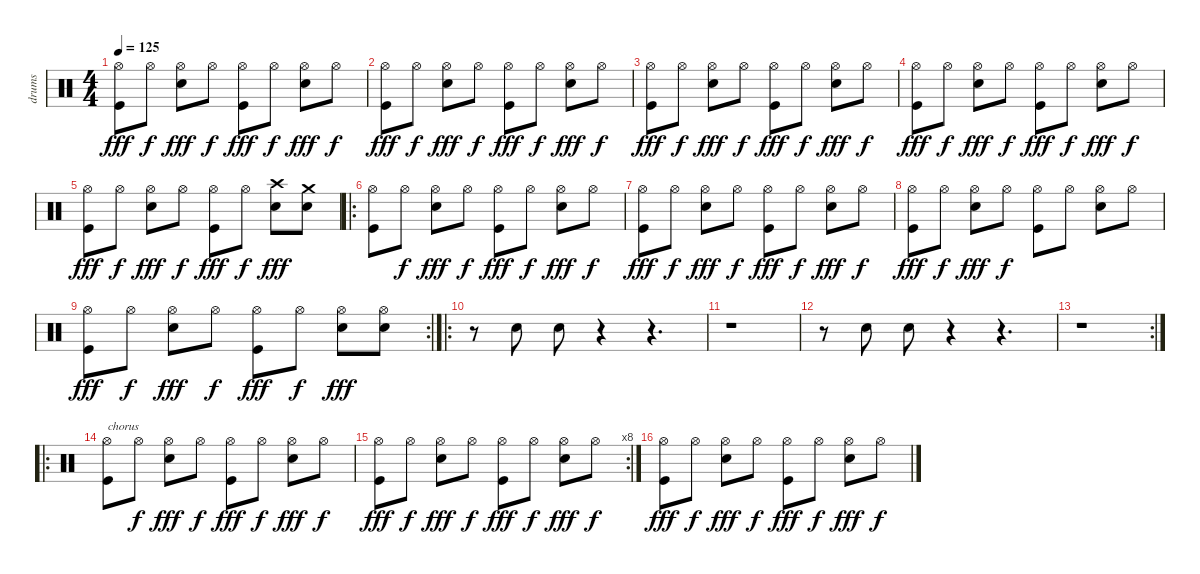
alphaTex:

\track ("drums" "drums") {instrument percussion}
\staff {score}
\articulation defaults
\ts (4 4)
\tempo 125
\clef neutral
\ks c
("Hi-Hat (open)" "Kick (hit)").8{dy fff} "Hi-Hat (open)".8{dy f} ("Hi-Hat (open)" "Snare (hit) 2").8{dy fff} "Hi-Hat (open)".8{dy f} ("Hi-Hat (open)" "Kick (hit)").8{dy fff} "Hi-Hat (open)".8{dy f} ("Hi-Hat (open)" "Snare (hit) 2").8{dy fff} "Hi-Hat (open)".8{dy f} |
("Hi-Hat (open)" "Kick (hit)").8{dy fff} "Hi-Hat (open)".8{dy f} ("Hi-Hat (open)" "Snare (hit) 2").8{dy fff} "Hi-Hat (open)".8{dy f} ("Hi-Hat (open)" "Kick (hit)").8{dy fff} "Hi-Hat (open)".8{dy f} ("Hi-Hat (open)" "Snare (hit) 2").8{dy fff} "Hi-Hat (open)".8{dy f} |
("Hi-Hat (open)" "Kick (hit)").8{dy fff} "Hi-Hat (open)".8{dy f} ("Hi-Hat (open)" "Snare (hit) 2").8{dy fff} "Hi-Hat (open)".8{dy f} ("Hi-Hat (open)" "Kick (hit)").8{dy fff} "Hi-Hat (open)".8{dy f} ("Hi-Hat (open)" "Snare (hit) 2").8{dy fff} "Hi-Hat (open)".8{dy f} |
("Hi-Hat (open)" "Kick (hit)").8{dy fff} "Hi-Hat (open)".8{dy f} ("Hi-Hat (open)" "Snare (hit) 2").8{dy fff} "Hi-Hat (open)".8{dy f} ("Hi-Hat (open)" "Kick (hit)").8{dy fff} "Hi-Hat (open)".8{dy f} ("Hi-Hat (open)" "Snare (hit) 2").8{dy fff} "Hi-Hat (open)".8{dy f} |
("Hi-Hat (open)" "Kick (hit)").8{dy fff} "Hi-Hat (open)".8{dy f} ("Hi-Hat (open)" "Snare (hit) 2").8{dy fff} "Hi-Hat (open)".8{dy f} ("Hi-Hat (open)" "Kick (hit)").8{dy fff} "Hi-Hat (open)".8{dy f} ("Crash high (hit)" "Snare (hit) 2").8{dy fff} ("Crash medium (hit)" "Snare (hit) 2").8 |
\ro
("Hi-Hat (open)" "Kick (hit)").8 "Hi-Hat (open)".8{dy f} ("Hi-Hat (open)" "Snare (hit) 2").8{dy fff} "Hi-Hat (open)".8{dy f} ("Hi-Hat (open)" "Kick (hit)").8{dy fff} "Hi-Hat (open)".8{dy f} ("Hi-Hat (open)" "Snare (hit) 2").8{dy fff} "Hi-Hat (open)".8{dy f} |
("Hi-Hat (open)" "Kick (hit)").8{dy fff} "Hi-Hat (open)".8{dy f} ("Hi-Hat (open)" "Snare (hit) 2").8{dy fff} "Hi-Hat (open)".8{dy f} ("Hi-Hat (open)" "Kick (hit)").8{dy fff} "Hi-Hat (open)".8{dy f} ("Hi-Hat (open)" "Snare (hit) 2").8{dy fff} "Hi-Hat (open)".8{dy f} |
("Hi-Hat (open)" "Kick (hit)").8{dy fff} "Hi-Hat (open)".8{dy f} ("Hi-Hat (open)" "Snare (hit) 2").8{dy fff} "Hi-Hat (open)".8{dy f} ("Hi-Hat (open)" "Kick (hit)").8 "Hi-Hat (open)".8 ("Hi-Hat (open)" "Snare (hit) 2").8 "Hi-Hat (open)".8 |
\rc 2
("Hi-Hat (open)" "Kick (hit)").8{dy fff} "Hi-Hat (open)".8{dy f} ("Hi-Hat (open)" "Snare (hit) 2").8{dy fff} "Hi-Hat (open)".8{dy f} ("Hi-Hat (open)" "Kick (hit)").8{dy fff} "Hi-Hat (open)".8{dy f} ("Hi-Hat (open)" "Snare (hit) 2").8{dy fff} ("Hi-Hat (open)" "Snare (hit) 2").8 |
\ro
r.8 "Snare (hit) 2".8 "Snare (hit) 2".8 r.4 r.4{d} |
r.1 |
r.8 "Snare (hit) 2".8 "Snare (hit) 2".8 r.4 r.4{d} |
\rc 2
r.1 |
\ro
("Hi-Hat (open)" "Kick (hit)").8{txt "chorus"} "Hi-Hat (open)".8{dy f} ("Hi-Hat (open)" "Snare (hit) 2").8{dy fff} "Hi-Hat (open)".8{dy f} ("Hi-Hat (open)" "Kick (hit)").8{dy fff} "Hi-Hat (open)".8{dy f} ("Hi-Hat (open)" "Snare (hit) 2").8{dy fff} "Hi-Hat (open)".8{dy f} |
\rc 8
("Hi-Hat (open)" "Kick (hit)").8{dy fff} "Hi-Hat (open)".8{dy f} ("Hi-Hat (open)" "Snare (hit) 2").8{dy fff} "Hi-Hat (open)".8{dy f} ("Hi-Hat (open)" "Kick (hit)").8{dy fff} "Hi-Hat (open)".8{dy f} ("Hi-Hat (open)" "Snare (hit) 2").8{dy fff} "Hi-Hat (open)".8{dy f} |
("Hi-Hat (open)" "Kick (hit)").8{dy fff} "Hi-Hat (open)".8{dy f} ("Hi-Hat (open)" "Snare (hit) 2").8{dy fff} "Hi-Hat (open)".8{dy f} ("Hi-Hat (open)" "Kick (hit)").8{dy fff} "Hi-Hat (open)".8{dy f} ("Hi-Hat (open)" "Snare (hit) 2").8{dy fff} "Hi-Hat (open)".8{dy f}
